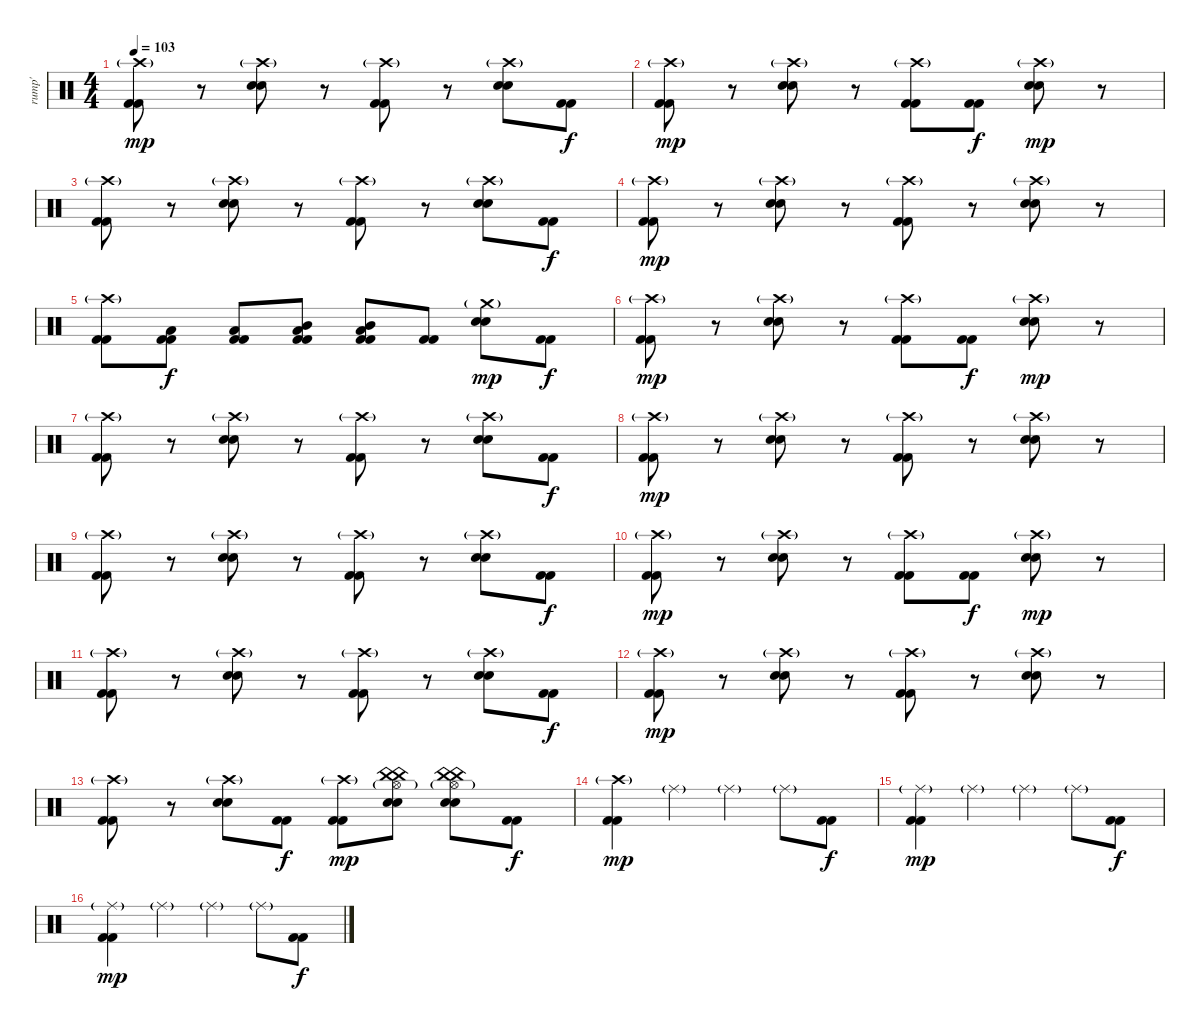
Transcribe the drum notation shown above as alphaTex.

\track ("rump'" "rump'") {instrument percussion}
\staff {score}
\articulation defaults
\ts (4 4)
\tempo 103
\clef neutral
\ks c
("Crash high (hit)"{g} "Kick (hit) 2" "Kick (hit) 2").8{dy mp} r.8 ("Crash high (hit)"{g} "Electric Snare (hit)" "Electric Snare (hit)").8 r.8 ("Crash high (hit)"{g} "Kick (hit) 2" "Kick (hit) 2").8 r.8 ("Crash high (hit)"{g} "Electric Snare (hit)" "Electric Snare (hit)").8 ("Kick (hit) 2" "Kick (hit) 2").8{dy f} |
("Crash high (hit)"{g} "Kick (hit) 2" "Kick (hit) 2").8{dy mp} r.8 ("Crash high (hit)"{g} "Electric Snare (hit)" "Electric Snare (hit)").8 r.8 ("Crash high (hit)"{g} "Kick (hit) 2" "Kick (hit) 2").8 ("Kick (hit) 2" "Kick (hit) 2").8{dy f} ("Crash high (hit)"{g} "Electric Snare (hit)" "Electric Snare (hit)").8{dy mp} r.8 |
("Crash high (hit)"{g} "Kick (hit) 2" "Kick (hit) 2").8 r.8 ("Crash high (hit)"{g} "Electric Snare (hit)" "Electric Snare (hit)").8 r.8 ("Crash high (hit)"{g} "Kick (hit) 2" "Kick (hit) 2").8 r.8 ("Crash high (hit)"{g} "Electric Snare (hit)" "Electric Snare (hit)").8 ("Kick (hit) 2" "Kick (hit) 2").8{dy f} |
("Crash high (hit)"{g} "Kick (hit) 2" "Kick (hit) 2").8{dy mp} r.8 ("Crash high (hit)"{g} "Electric Snare (hit)" "Electric Snare (hit)").8 r.8 ("Crash high (hit)"{g} "Kick (hit) 2" "Kick (hit) 2").8 r.8 ("Crash high (hit)"{g} "Electric Snare (hit)" "Electric Snare (hit)").8 r.8 |
("Crash high (hit)"{g} "Kick (hit) 2" "Kick (hit) 2").8 ("Low Tom (hit)" "Kick (hit) 2" "Kick (hit) 2").8{dy f} ("Low Tom (hit)" "Kick (hit) 2" "Kick (hit) 2").8 ("Mid Tom (hit)" "Low Tom (hit)" "Kick (hit) 2" "Kick (hit) 2").8 ("Mid Tom (hit)" "Low Tom (hit)" "Kick (hit) 2" "Kick (hit) 2").8 ("Kick (hit) 2" "Kick (hit) 2").8 ("Crash medium (hit)"{g} "Electric Snare (hit)" "Electric Snare (hit)").8{dy mp} ("Kick (hit) 2" "Kick (hit) 2").8{dy f} |
("Crash high (hit)"{g} "Kick (hit) 2" "Kick (hit) 2").8{dy mp} r.8 ("Crash high (hit)"{g} "Electric Snare (hit)" "Electric Snare (hit)").8 r.8 ("Crash high (hit)"{g} "Kick (hit) 2" "Kick (hit) 2").8 ("Kick (hit) 2" "Kick (hit) 2").8{dy f} ("Crash high (hit)"{g} "Electric Snare (hit)" "Electric Snare (hit)").8{dy mp} r.8 |
("Crash high (hit)"{g} "Kick (hit) 2" "Kick (hit) 2").8 r.8 ("Crash high (hit)"{g} "Electric Snare (hit)" "Electric Snare (hit)").8 r.8 ("Crash high (hit)"{g} "Kick (hit) 2" "Kick (hit) 2").8 r.8 ("Crash high (hit)"{g} "Electric Snare (hit)" "Electric Snare (hit)").8 ("Kick (hit) 2" "Kick (hit) 2").8{dy f} |
("Crash high (hit)"{g} "Kick (hit) 2" "Kick (hit) 2").8{dy mp} r.8 ("Crash high (hit)"{g} "Electric Snare (hit)" "Electric Snare (hit)").8 r.8 ("Crash high (hit)"{g} "Kick (hit) 2" "Kick (hit) 2").8 r.8 ("Crash high (hit)"{g} "Electric Snare (hit)" "Electric Snare (hit)").8 r.8 |
("Crash high (hit)"{g} "Kick (hit) 2" "Kick (hit) 2").8 r.8 ("Crash high (hit)"{g} "Electric Snare (hit)" "Electric Snare (hit)").8 r.8 ("Crash high (hit)"{g} "Kick (hit) 2" "Kick (hit) 2").8 r.8 ("Crash high (hit)"{g} "Electric Snare (hit)" "Electric Snare (hit)").8 ("Kick (hit) 2" "Kick (hit) 2").8{dy f} |
("Crash high (hit)"{g} "Kick (hit) 2" "Kick (hit) 2").8{dy mp} r.8 ("Crash high (hit)"{g} "Electric Snare (hit)" "Electric Snare (hit)").8 r.8 ("Crash high (hit)"{g} "Kick (hit) 2" "Kick (hit) 2").8 ("Kick (hit) 2" "Kick (hit) 2").8{dy f} ("Crash high (hit)"{g} "Electric Snare (hit)" "Electric Snare (hit)").8{dy mp} r.8 |
("Crash high (hit)"{g} "Kick (hit) 2" "Kick (hit) 2").8 r.8 ("Crash high (hit)"{g} "Electric Snare (hit)" "Electric Snare (hit)").8 r.8 ("Crash high (hit)"{g} "Kick (hit) 2" "Kick (hit) 2").8 r.8 ("Crash high (hit)"{g} "Electric Snare (hit)" "Electric Snare (hit)").8 ("Kick (hit) 2" "Kick (hit) 2").8{dy f} |
("Crash high (hit)"{g} "Kick (hit) 2" "Kick (hit) 2").8{dy mp} r.8 ("Crash high (hit)"{g} "Electric Snare (hit)" "Electric Snare (hit)").8 r.8 ("Crash high (hit)"{g} "Kick (hit) 2" "Kick (hit) 2").8 r.8 ("Crash high (hit)"{g} "Electric Snare (hit)" "Electric Snare (hit)").8 r.8 |
("Crash high (hit)"{g} "Kick (hit) 2" "Kick (hit) 2").8 r.8 ("Crash high (hit)"{g} "Electric Snare (hit)" "Electric Snare (hit)").8 ("Kick (hit) 2" "Kick (hit) 2").8{dy f} ("Crash high (hit)"{g} "Kick (hit) 2" "Kick (hit) 2").8{dy mp} ("China (hit)" "China (hit)" "Hi-Hat (open)"{g} "Electric Snare (hit)" "Electric Snare (hit)").8 ("China (hit)" "China (hit)" "Hi-Hat (open)"{g} "Electric Snare (hit)" "Electric Snare (hit)").8 ("Kick (hit) 2" "Kick (hit) 2").8{dy f} |
("Crash high (hit)"{g} "Kick (hit) 2" "Kick (hit) 2").4{dy mp} "Ride (middle)"{g}.4 "Ride (middle)"{g}.4 "Ride (middle)"{g}.8 ("Kick (hit) 2" "Kick (hit) 2").8{dy f} |
("Ride (middle)"{g} "Kick (hit) 2" "Kick (hit) 2").4{dy mp} "Ride (middle)"{g}.4 "Ride (middle)"{g}.4 "Ride (middle)"{g}.8 ("Kick (hit) 2" "Kick (hit) 2").8{dy f} |
("Ride (middle)"{g} "Kick (hit) 2" "Kick (hit) 2").4{dy mp} "Ride (middle)"{g}.4 "Ride (middle)"{g}.4 "Ride (middle)"{g}.8 ("Kick (hit) 2" "Kick (hit) 2").8{dy f}
